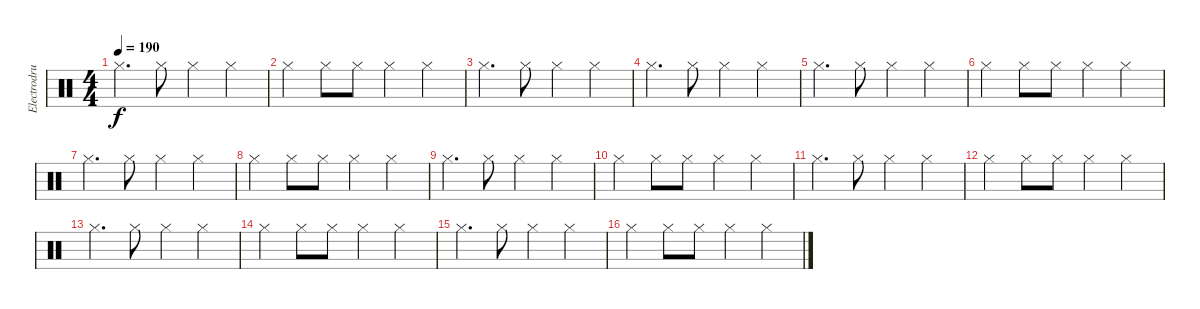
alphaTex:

\track ("Electrodrums1" "Electrodru") {instrument percussion}
\staff {score}
\articulation defaults
\ts (4 4)
\tempo 190
\clef neutral
\ks c "Hi-Hat (closed)".4{d dy f} "Hi-Hat (closed)".8 "Hi-Hat (closed)".4 "Hi-Hat (closed)".4
|
"Hi-Hat (closed)".4 "Hi-Hat (closed)".8 "Hi-Hat (closed)".8 "Hi-Hat (closed)".4 "Hi-Hat (closed)".4 |
"Hi-Hat (closed)".4{d} "Hi-Hat (closed)".8 "Hi-Hat (closed)".4 "Hi-Hat (closed)".4 |
"Hi-Hat (closed)".4{d} "Hi-Hat (closed)".8 "Hi-Hat (closed)".4 "Hi-Hat (closed)".4 |
"Hi-Hat (closed)".4{d} "Hi-Hat (closed)".8 "Hi-Hat (closed)".4 "Hi-Hat (closed)".4 |
"Hi-Hat (closed)".4 "Hi-Hat (closed)".8 "Hi-Hat (closed)".8 "Hi-Hat (closed)".4 "Hi-Hat (closed)".4 |
"Hi-Hat (closed)".4{d} "Hi-Hat (closed)".8 "Hi-Hat (closed)".4 "Hi-Hat (closed)".4 |
"Hi-Hat (closed)".4 "Hi-Hat (closed)".8 "Hi-Hat (closed)".8 "Hi-Hat (closed)".4 "Hi-Hat (closed)".4 |
"Hi-Hat (closed)".4{d} "Hi-Hat (closed)".8 "Hi-Hat (closed)".4 "Hi-Hat (closed)".4 |
"Hi-Hat (closed)".4 "Hi-Hat (closed)".8 "Hi-Hat (closed)".8 "Hi-Hat (closed)".4 "Hi-Hat (closed)".4 |
"Hi-Hat (closed)".4{d} "Hi-Hat (closed)".8 "Hi-Hat (closed)".4 "Hi-Hat (closed)".4 |
"Hi-Hat (closed)".4 "Hi-Hat (closed)".8 "Hi-Hat (closed)".8 "Hi-Hat (closed)".4 "Hi-Hat (closed)".4 |
"Hi-Hat (closed)".4{d} "Hi-Hat (closed)".8 "Hi-Hat (closed)".4 "Hi-Hat (closed)".4 |
"Hi-Hat (closed)".4 "Hi-Hat (closed)".8 "Hi-Hat (closed)".8 "Hi-Hat (closed)".4 "Hi-Hat (closed)".4 |
"Hi-Hat (closed)".4{d} "Hi-Hat (closed)".8 "Hi-Hat (closed)".4 "Hi-Hat (closed)".4 |
"Hi-Hat (closed)".4 "Hi-Hat (closed)".8 "Hi-Hat (closed)".8 "Hi-Hat (closed)".4 "Hi-Hat (closed)".4
